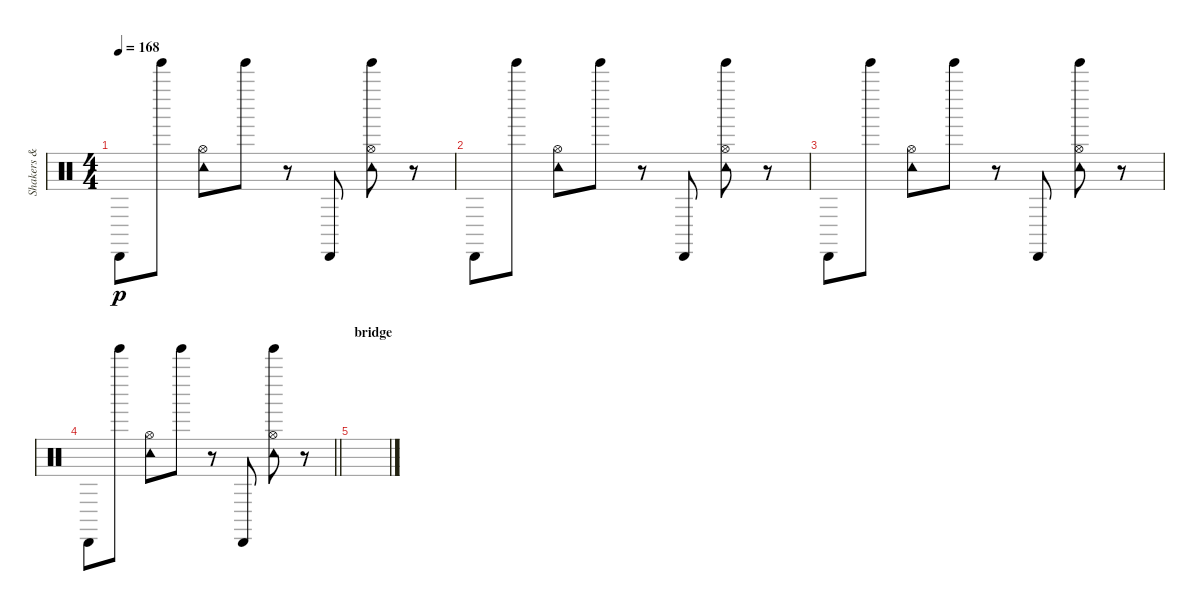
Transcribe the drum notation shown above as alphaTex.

\track ("Shakers & Effects" "Shakers & ") {instrument percussion}
\staff {score}
\articulation defaults
\ts (4 4)
\tempo 168
\clef neutral
\ks c "Cabasa (hit)".8{dy p} "Tinkle Bell (hit)".8
("Tambourine (hit)" "Hi-Hat (open)").8 "Tinkle Bell (hit)".8 r.8 "Cabasa (hit)".8 ("Tambourine (hit)" "Tinkle Bell (hit)" "Hi-Hat (open)").8 r.8 |
"Cabasa (hit)".8 "Tinkle Bell (hit)".8 ("Tambourine (hit)" "Hi-Hat (open)").8 "Tinkle Bell (hit)".8 r.8 "Cabasa (hit)".8 ("Tambourine (hit)" "Tinkle Bell (hit)" "Hi-Hat (open)").8 r.8 |
"Cabasa (hit)".8 "Tinkle Bell (hit)".8 ("Tambourine (hit)" "Hi-Hat (open)").8 "Tinkle Bell (hit)".8 r.8 "Cabasa (hit)".8 ("Tambourine (hit)" "Tinkle Bell (hit)" "Hi-Hat (open)").8 r.8 |
\barLineRight lightlight "Cabasa (hit)".8 "Tinkle Bell (hit)".8
("Tambourine (hit)" "Hi-Hat (open)").8 "Tinkle Bell (hit)".8 r.8 "Cabasa (hit)".8 ("Tambourine (hit)" "Tinkle Bell (hit)" "Hi-Hat (open)").8 r.8 |
\section ("" "bridge")
